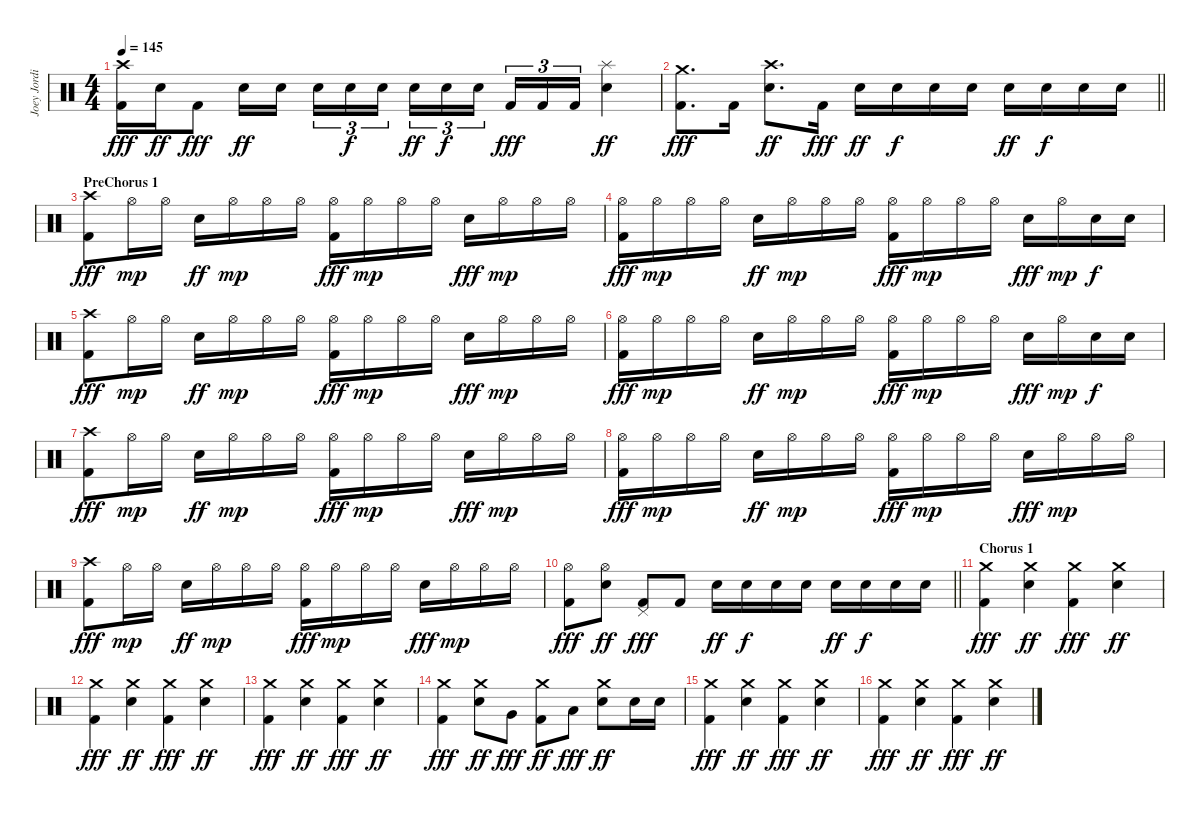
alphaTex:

\track ("Joey Jordison" "Joey Jordi") {instrument percussion}
\staff {score}
\articulation defaults
\ts (4 4)
\tempo 145
\clef neutral
\ks c
("Crash high (hit)" "Kick (hit) 2").16{dy fff} "Electric Snare (hit)".16{dy ff} "Kick (hit) 2".8{dy fff} "Electric Snare (hit)".16{dy ff} "Electric Snare (hit)".16{beam splitsecondary} "Electric Snare (hit)".16{tu (3 2)} "Electric Snare (hit)".16{tu (3 2) dy f} "Electric Snare (hit)".16{tu (3 2)} "Electric Snare (hit)".16{tu (3 2) dy ff} "Electric Snare (hit)".16{tu (3 2) dy f} "Electric Snare (hit)".16{tu (3 2) beam splitsecondary} "Kick (hit) 2".16{tu (3 2) dy fff} "Kick (hit) 2".16{tu (3 2)} "Kick (hit) 2".16{tu (3 2)} ("Splash (hit)" "Electric Snare (hit)").4{dy ff} |
\barLineRight lightlight
("Crash medium (hit)" "Kick (hit) 2").8{d dy fff} "Kick (hit) 2".16 ("Crash high (hit)" "Electric Snare (hit)").8{d dy ff} "Kick (hit) 2".16{dy fff} "Electric Snare (hit)".16{dy ff} "Electric Snare (hit)".16{dy f} "Electric Snare (hit)".16 "Electric Snare (hit)".16 "Electric Snare (hit)".16{dy ff} "Electric Snare (hit)".16{dy f} "Electric Snare (hit)".16 "Electric Snare (hit)".16 |
\section ("" "PreChorus 1")
("Crash high (hit)" "Kick (hit) 2").8{dy fff} "Hi-Hat (open)".16{dy mp} "Hi-Hat (open)".16 "Electric Snare (hit)".16{dy ff} "Hi-Hat (open)".16{dy mp} "Hi-Hat (open)".16 "Hi-Hat (open)".16 ("Hi-Hat (open)" "Kick (hit) 2").16{dy fff} "Hi-Hat (open)".16{dy mp} "Hi-Hat (open)".16 "Hi-Hat (open)".16 "Electric Snare (hit)".16{dy fff} "Hi-Hat (open)".16{dy mp} "Hi-Hat (open)".16 "Hi-Hat (open)".16 |
("Hi-Hat (open)" "Kick (hit) 2").16{dy fff} "Hi-Hat (open)".16{dy mp} "Hi-Hat (open)".16 "Hi-Hat (open)".16 "Electric Snare (hit)".16{dy ff} "Hi-Hat (open)".16{dy mp} "Hi-Hat (open)".16 "Hi-Hat (open)".16 ("Hi-Hat (open)" "Kick (hit) 2").16{dy fff} "Hi-Hat (open)".16{dy mp} "Hi-Hat (open)".16 "Hi-Hat (open)".16 "Electric Snare (hit)".16{dy fff} "Hi-Hat (open)".16{dy mp} "Electric Snare (hit)".16{dy f} "Electric Snare (hit)".16 |
("Crash high (hit)" "Kick (hit) 2").8{dy fff} "Hi-Hat (open)".16{dy mp} "Hi-Hat (open)".16 "Electric Snare (hit)".16{dy ff} "Hi-Hat (open)".16{dy mp} "Hi-Hat (open)".16 "Hi-Hat (open)".16 ("Hi-Hat (open)" "Kick (hit) 2").16{dy fff} "Hi-Hat (open)".16{dy mp} "Hi-Hat (open)".16 "Hi-Hat (open)".16 "Electric Snare (hit)".16{dy fff} "Hi-Hat (open)".16{dy mp} "Hi-Hat (open)".16 "Hi-Hat (open)".16 |
("Hi-Hat (open)" "Kick (hit) 2").16{dy fff} "Hi-Hat (open)".16{dy mp} "Hi-Hat (open)".16 "Hi-Hat (open)".16 "Electric Snare (hit)".16{dy ff} "Hi-Hat (open)".16{dy mp} "Hi-Hat (open)".16 "Hi-Hat (open)".16 ("Hi-Hat (open)" "Kick (hit) 2").16{dy fff} "Hi-Hat (open)".16{dy mp} "Hi-Hat (open)".16 "Hi-Hat (open)".16 "Electric Snare (hit)".16{dy fff} "Hi-Hat (open)".16{dy mp} "Electric Snare (hit)".16{dy f} "Electric Snare (hit)".16 |
("Crash high (hit)" "Kick (hit) 2").8{dy fff} "Hi-Hat (open)".16{dy mp} "Hi-Hat (open)".16 "Electric Snare (hit)".16{dy ff} "Hi-Hat (open)".16{dy mp} "Hi-Hat (open)".16 "Hi-Hat (open)".16 ("Hi-Hat (open)" "Kick (hit) 2").16{dy fff} "Hi-Hat (open)".16{dy mp} "Hi-Hat (open)".16 "Hi-Hat (open)".16 "Electric Snare (hit)".16{dy fff} "Hi-Hat (open)".16{dy mp} "Hi-Hat (open)".16 "Hi-Hat (open)".16 |
("Hi-Hat (open)" "Kick (hit) 2").16{dy fff} "Hi-Hat (open)".16{dy mp} "Hi-Hat (open)".16 "Hi-Hat (open)".16 "Electric Snare (hit)".16{dy ff} "Hi-Hat (open)".16{dy mp} "Hi-Hat (open)".16 "Hi-Hat (open)".16 ("Hi-Hat (open)" "Kick (hit) 2").16{dy fff} "Hi-Hat (open)".16{dy mp} "Hi-Hat (open)".16 "Hi-Hat (open)".16 "Electric Snare (hit)".16{dy fff} "Hi-Hat (open)".16{dy mp} "Hi-Hat (open)".16 "Hi-Hat (open)".16 |
("Crash high (hit)" "Kick (hit) 2").8{dy fff} "Hi-Hat (open)".16{dy mp} "Hi-Hat (open)".16 "Electric Snare (hit)".16{dy ff} "Hi-Hat (open)".16{dy mp} "Hi-Hat (open)".16 "Hi-Hat (open)".16 ("Hi-Hat (open)" "Kick (hit) 2").16{dy fff} "Hi-Hat (open)".16{dy mp} "Hi-Hat (open)".16 "Hi-Hat (open)".16 "Electric Snare (hit)".16{dy fff} "Hi-Hat (open)".16{dy mp} "Hi-Hat (open)".16 "Hi-Hat (open)".16 |
\barLineRight lightlight
("Hi-Hat (open)" "Kick (hit) 2").8{dy fff} ("Hi-Hat (open)" "Electric Snare (hit)").8{dy ff} ("Pedal Hi-Hat (hit)" "Kick (hit) 2").8{dy fff} "Kick (hit) 2".8 "Electric Snare (hit)".16{dy ff} "Electric Snare (hit)".16{dy f} "Electric Snare (hit)".16 "Electric Snare (hit)".16 "Electric Snare (hit)".16{dy ff} "Electric Snare (hit)".16{dy f} "Electric Snare (hit)".16 "Electric Snare (hit)".16 |
\section ("" "Chorus 1")
("Crash medium (hit)" "Kick (hit) 2").4{dy fff} ("Crash medium (hit)" "Electric Snare (hit)").4{dy ff} ("Crash medium (hit)" "Kick (hit) 2").4{dy fff} ("Crash medium (hit)" "Electric Snare (hit)").4{dy ff} |
("Crash medium (hit)" "Kick (hit) 2").4{dy fff} ("Crash medium (hit)" "Electric Snare (hit)").4{dy ff} ("Crash medium (hit)" "Kick (hit) 2").4{dy fff} ("Crash medium (hit)" "Electric Snare (hit)").4{dy ff} |
("Crash medium (hit)" "Kick (hit) 2").4{dy fff} ("Crash medium (hit)" "Electric Snare (hit)").4{dy ff} ("Crash medium (hit)" "Kick (hit) 2").4{dy fff} ("Crash medium (hit)" "Electric Snare (hit)").4{dy ff} |
("Crash medium (hit)" "Kick (hit) 2").4{dy fff} ("Crash medium (hit)" "Electric Snare (hit)").8{dy ff} "Very Low Tom (hit)".8{dy fff} ("Crash medium (hit)" "Kick (hit) 2").8{dy ff} "Low Floor Tom (hit)".8{dy fff} ("Crash medium (hit)" "Electric Snare (hit)").8{dy ff} "Electric Snare (hit)".16 "Electric Snare (hit)".16 |
("Crash medium (hit)" "Kick (hit) 2").4{dy fff} ("Crash medium (hit)" "Electric Snare (hit)").4{dy ff} ("Crash medium (hit)" "Kick (hit) 2").4{dy fff} ("Crash medium (hit)" "Electric Snare (hit)").4{dy ff} |
("Crash medium (hit)" "Kick (hit) 2").4{dy fff} ("Crash medium (hit)" "Electric Snare (hit)").4{dy ff} ("Crash medium (hit)" "Kick (hit) 2").4{dy fff} ("Crash medium (hit)" "Electric Snare (hit)").4{dy ff}
